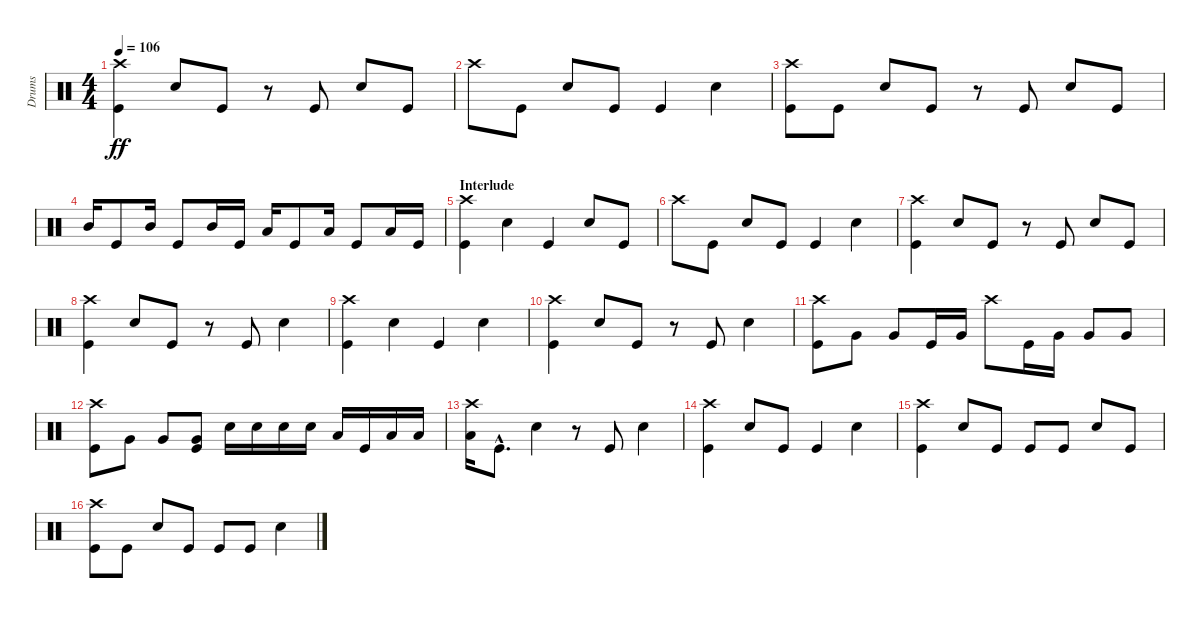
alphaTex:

\track ("Drums" "Drums") {instrument percussion}
\staff {score}
\articulation defaults
\ts (4 4)
\tempo 106
\clef neutral
\ks c
("Crash high (hit)" "Kick (hit)").4{dy ff} "Snare (hit) 2".8 "Kick (hit)".8 r.8 "Kick (hit)".8 "Snare (hit) 2".8 "Kick (hit)".8 |
"Crash high (hit)".8 "Kick (hit)".8 "Snare (hit) 2".8 "Kick (hit)".8 "Kick (hit)".4 "Snare (hit) 2".4 |
("Crash high (hit)" "Kick (hit)").8 "Kick (hit)".8 "Snare (hit) 2".8 "Kick (hit)".8 r.8 "Kick (hit)".8 "Snare (hit) 2".8 "Kick (hit)".8 |
"Mid Tom (hit)".16 "Kick (hit)".8 "Mid Tom (hit)".16 "Kick (hit)".8 "Mid Tom (hit)".16 "Kick (hit)".16 "Low Tom (hit)".16 "Kick (hit)".8 "Low Tom (hit)".16 "Kick (hit)".8 "Low Tom (hit)".16 "Kick (hit)".16 |
\section ("" "Interlude")
("Crash high (hit)" "Kick (hit)").4 "Snare (hit) 2".4 "Kick (hit)".4 "Snare (hit) 2".8 "Kick (hit)".8 |
"Crash high (hit)".8 "Kick (hit)".8 "Snare (hit) 2".8 "Kick (hit)".8 "Kick (hit)".4 "Snare (hit) 2".4 |
("Crash high (hit)" "Kick (hit)").4 "Snare (hit) 2".8 "Kick (hit)".8 r.8 "Kick (hit)".8 "Snare (hit) 2".8 "Kick (hit)".8 |
("Crash high (hit)" "Kick (hit)").4 "Snare (hit) 2".8 "Kick (hit)".8 r.8 "Kick (hit)".8 "Snare (hit) 2".4 |
("Crash high (hit)" "Kick (hit)").4 "Snare (hit) 2".4 "Kick (hit)".4 "Snare (hit) 2".4 |
("Crash high (hit)" "Kick (hit)").4 "Snare (hit) 2".8 "Kick (hit)".8 r.8 "Kick (hit)".8 "Snare (hit) 2".4 |
("Crash high (hit)" "Kick (hit)").8 "Very Low Tom (hit)".8 "Very Low Tom (hit)".8 "Kick (hit)".16 "Very Low Tom (hit)".16 "Crash high (hit)".8 "Kick (hit)".16 "Very Low Tom (hit)".16 "Very Low Tom (hit)".8 "Very Low Tom (hit)".8 |
("Crash high (hit)" "Kick (hit)").8 "Very Low Tom (hit)".8 "Very Low Tom (hit)".8 ("Very Low Tom (hit)" "Kick (hit)").8 "Snare (hit) 2".16 "Snare (hit) 2".16 "Snare (hit) 2".16 "Snare (hit) 2".16 "Low Tom (hit)".16 "Kick (hit)".16 "Low Tom (hit)".16 "Low Tom (hit)".16 |
("Crash high (hit)" "Low Tom (hit)").16 "Kick (hit)"{hac}.8{d} "Snare (hit) 2".4 r.8 "Kick (hit)".8 "Snare (hit) 2".4 |
("Crash high (hit)" "Kick (hit)").4 "Snare (hit) 2".8 "Kick (hit)".8 "Kick (hit)".4 "Snare (hit) 2".4 |
("Crash high (hit)" "Kick (hit)").4 "Snare (hit) 2".8 "Kick (hit)".8 "Kick (hit)".8 "Kick (hit)".8 "Snare (hit) 2".8 "Kick (hit)".8 |
("Crash high (hit)" "Kick (hit)").8 "Kick (hit)".8 "Snare (hit) 2".8 "Kick (hit)".8 "Kick (hit)".8 "Kick (hit)".8 "Snare (hit) 2".4
